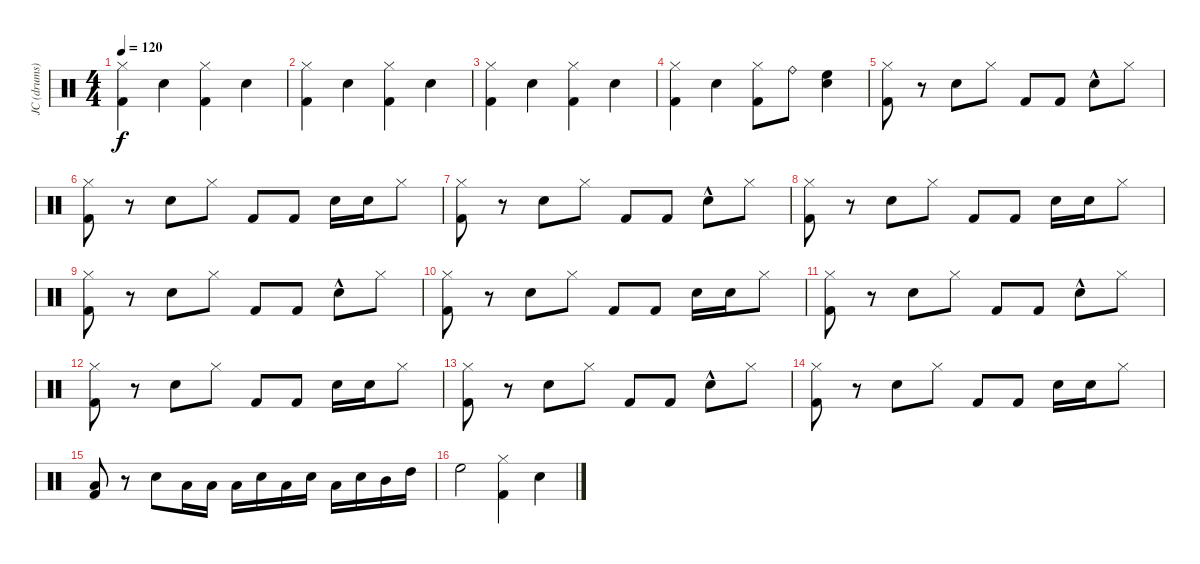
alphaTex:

\track ("JC (drums)" "JC (drums)") {instrument percussion}
\staff {score}
\articulation defaults
\ts (4 4)
\tempo 120
\clef neutral
\ks c
("Hi-Hat (closed)" "Kick (hit) 2").4{dy f} "Electric Snare (hit)".4 ("Hi-Hat (closed)" "Kick (hit) 2").4 "Snare (hit) 2".4 |
("Hi-Hat (closed)" "Kick (hit) 2").4 "Electric Snare (hit)".4 ("Hi-Hat (closed)" "Kick (hit) 2").4 "Snare (hit) 2".4 |
("Hi-Hat (closed)" "Kick (hit) 2").4 "Electric Snare (hit)".4 ("Hi-Hat (closed)" "Kick (hit) 2").4 "Snare (hit) 2".4 |
("Hi-Hat (closed)" "Kick (hit) 2").4 "Electric Snare (hit)".4 ("Hi-Hat (closed)" "Kick (hit) 2").8 "Ride (bell)".8 ("High Floor Tom (hit)" "Snare (hit) 2").4 |
("Hi-Hat (closed)" "Kick (hit) 2").8 r.8 "Electric Snare (hit)".8 "Hi-Hat (closed)".8 "Kick (hit) 2".8 "Kick (hit) 2".8 "Electric Snare (hit)"{hac}.8 "Hi-Hat (closed)".8 |
("Hi-Hat (closed)" "Kick (hit) 2").8 r.8 "Electric Snare (hit)".8 "Hi-Hat (closed)".8 "Kick (hit) 2".8 "Kick (hit) 2".8 "Electric Snare (hit)".16 "Electric Snare (hit)".16 "Hi-Hat (closed)".8 |
("Hi-Hat (closed)" "Kick (hit) 2").8 r.8 "Electric Snare (hit)".8 "Hi-Hat (closed)".8 "Kick (hit) 2".8 "Kick (hit) 2".8 "Electric Snare (hit)"{hac}.8 "Hi-Hat (closed)".8 |
("Hi-Hat (closed)" "Kick (hit) 2").8 r.8 "Electric Snare (hit)".8 "Hi-Hat (closed)".8 "Kick (hit) 2".8 "Kick (hit) 2".8 "Electric Snare (hit)".16 "Electric Snare (hit)".16 "Hi-Hat (closed)".8 |
("Hi-Hat (closed)" "Kick (hit) 2").8 r.8 "Electric Snare (hit)".8 "Hi-Hat (closed)".8 "Kick (hit) 2".8 "Kick (hit) 2".8 "Electric Snare (hit)"{hac}.8 "Hi-Hat (closed)".8 |
("Hi-Hat (closed)" "Kick (hit) 2").8 r.8 "Electric Snare (hit)".8 "Hi-Hat (closed)".8 "Kick (hit) 2".8 "Kick (hit) 2".8 "Electric Snare (hit)".16 "Electric Snare (hit)".16 "Hi-Hat (closed)".8 |
("Hi-Hat (closed)" "Kick (hit) 2").8 r.8 "Electric Snare (hit)".8 "Hi-Hat (closed)".8 "Kick (hit) 2".8 "Kick (hit) 2".8 "Electric Snare (hit)"{hac}.8 "Hi-Hat (closed)".8 |
("Hi-Hat (closed)" "Kick (hit) 2").8 r.8 "Electric Snare (hit)".8 "Hi-Hat (closed)".8 "Kick (hit) 2".8 "Kick (hit) 2".8 "Electric Snare (hit)".16 "Electric Snare (hit)".16 "Hi-Hat (closed)".8 |
("Kick (hit) 2" "Hi-Hat (closed)").8 r.8 "Electric Snare (hit)".8 "Hi-Hat (closed)".8 "Kick (hit) 2".8 "Kick (hit) 2".8 "Electric Snare (hit)"{hac}.8 "Hi-Hat (closed)".8 |
("Hi-Hat (closed)" "Kick (hit) 2").8 r.8 "Electric Snare (hit)".8 "Hi-Hat (closed)".8 "Kick (hit) 2".8 "Kick (hit) 2".8 "Electric Snare (hit)".16 "Electric Snare (hit)".16 "Hi-Hat (closed)".8 |
("Low Floor Tom (hit)" "Kick (hit) 2").8 r.8 "Electric Snare (hit)".8 "Low Floor Tom (hit)".16 "Low Floor Tom (hit)".16 "Low Floor Tom (hit)".16 "Snare (hit) 2".16 "Low Floor Tom (hit)".16 "Electric Snare (hit)".16 "Low Tom (hit)".16 "Electric Snare (hit)".16 "Mid Tom (hit)".16 "High Tom (hit)".16 |
"High Floor Tom (hit)".2 ("Hi-Hat (closed)" "Kick (hit) 2").4 "Electric Snare (hit)".4
